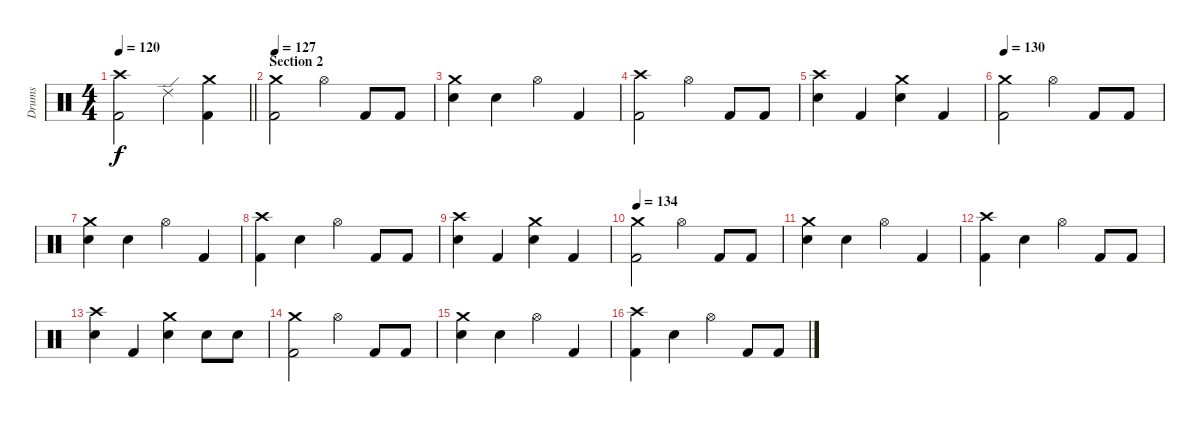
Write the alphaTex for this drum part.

\track ("Drums" "Drums") {instrument percussion}
\staff {score}
\articulation defaults
\ts (4 4)
\tempo 120
\clef neutral
\barLineRight lightlight
\ks c
("Crash high (hit)" "Kick (hit) 2").2{dy f} "Ride (edge) 2".4 ("Crash medium (hit)" "Kick (hit) 2").4 |
\section ("" "Section 2")
\tempo 127
("Crash medium (hit)" "Kick (hit) 2").2 "Hi-Hat (open)".4 "Kick (hit) 2".8 "Kick (hit) 2".8 |
("Crash medium (hit)" "Electric Snare (hit)").4 "Electric Snare (hit)".4 "Hi-Hat (open)".4 "Kick (hit) 2".4 |
("Crash high (hit)" "Kick (hit) 2").2 "Hi-Hat (open)".4 "Kick (hit) 2".8 "Kick (hit) 2".8 |
("Crash high (hit)" "Electric Snare (hit)").4 "Kick (hit) 2".4 ("Crash medium (hit)" "Electric Snare (hit)").4 "Kick (hit) 2".4 |
\tempo 130
("Crash medium (hit)" "Kick (hit) 2").2 "Hi-Hat (open)".4 "Kick (hit) 2".8 "Kick (hit) 2".8 |
("Crash medium (hit)" "Electric Snare (hit)").4 "Electric Snare (hit)".4 "Hi-Hat (open)".4 "Kick (hit) 2".4 |
("Crash high (hit)" "Kick (hit) 2").4 "Electric Snare (hit)".4 "Hi-Hat (open)".4 "Kick (hit) 2".8 "Kick (hit) 2".8 |
("Crash high (hit)" "Electric Snare (hit)").4 "Kick (hit) 2".4 ("Crash medium (hit)" "Electric Snare (hit)").4 "Kick (hit) 2".4 |
\tempo 134
("Crash medium (hit)" "Kick (hit) 2").2 "Hi-Hat (open)".4 "Kick (hit) 2".8 "Kick (hit) 2".8 |
("Crash medium (hit)" "Electric Snare (hit)").4 "Electric Snare (hit)".4 "Hi-Hat (open)".4 "Kick (hit) 2".4 |
("Crash high (hit)" "Kick (hit) 2").4 "Electric Snare (hit)".4 "Hi-Hat (open)".4 "Kick (hit) 2".8 "Kick (hit) 2".8 |
("Crash high (hit)" "Electric Snare (hit)").4 "Kick (hit) 2".4 ("Crash medium (hit)" "Electric Snare (hit)").4 "Electric Snare (hit)".8 "Electric Snare (hit)".8 |
("Crash medium (hit)" "Kick (hit) 2").2 "Hi-Hat (open)".4 "Kick (hit) 2".8 "Kick (hit) 2".8 |
("Crash medium (hit)" "Electric Snare (hit)").4 "Electric Snare (hit)".4 "Hi-Hat (open)".4 "Kick (hit) 2".4 |
("Crash high (hit)" "Kick (hit) 2").4 "Electric Snare (hit)".4 "Hi-Hat (open)".4 "Kick (hit) 2".8 "Kick (hit) 2".8
